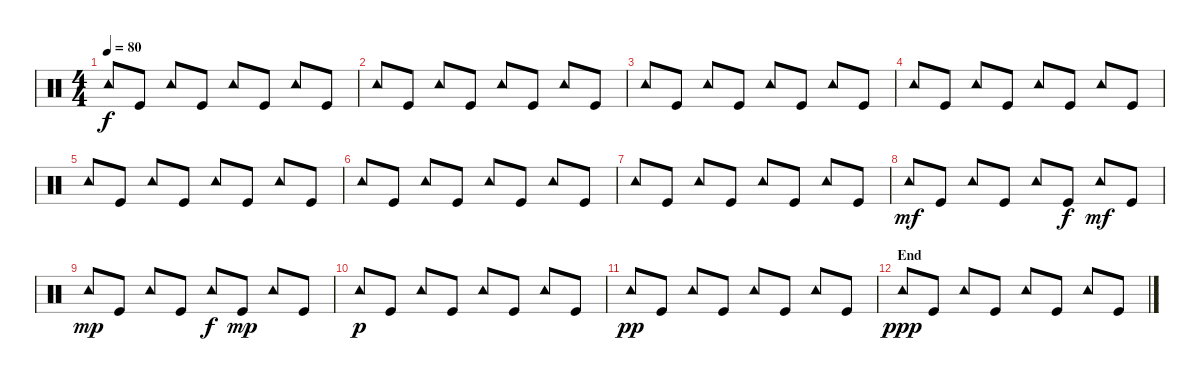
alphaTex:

\track "" {instrument percussion}
\staff {score}
\articulation defaults
\ts (4 4)
\tempo 80
\clef neutral
\ks c "Tambourine (hit)".8{dy f} "Kick (hit)".8 "Tambourine (hit)".8 "Kick (hit)".8 "Tambourine (hit)".8 "Kick (hit)".8 "Tambourine (hit)".8 "Kick (hit)".8
|
"Tambourine (hit)".8 "Kick (hit)".8 "Tambourine (hit)".8 "Kick (hit)".8 "Tambourine (hit)".8 "Kick (hit)".8 "Tambourine (hit)".8 "Kick (hit)".8 |
"Tambourine (hit)".8 "Kick (hit)".8 "Tambourine (hit)".8 "Kick (hit)".8 "Tambourine (hit)".8 "Kick (hit)".8 "Tambourine (hit)".8 "Kick (hit)".8 |
"Tambourine (hit)".8 "Kick (hit)".8 "Tambourine (hit)".8 "Kick (hit)".8 "Tambourine (hit)".8 "Kick (hit)".8 "Tambourine (hit)".8 "Kick (hit)".8 |
"Tambourine (hit)".8 "Kick (hit)".8 "Tambourine (hit)".8 "Kick (hit)".8 "Tambourine (hit)".8 "Kick (hit)".8 "Tambourine (hit)".8 "Kick (hit)".8 |
"Tambourine (hit)".8 "Kick (hit)".8 "Tambourine (hit)".8 "Kick (hit)".8 "Tambourine (hit)".8 "Kick (hit)".8 "Tambourine (hit)".8 "Kick (hit)".8 |
"Tambourine (hit)".8 "Kick (hit)".8 "Tambourine (hit)".8 "Kick (hit)".8 "Tambourine (hit)".8 "Kick (hit)".8 "Tambourine (hit)".8 "Kick (hit)".8 |
"Tambourine (hit)".8{dy mf} "Kick (hit)".8 "Tambourine (hit)".8 "Kick (hit)".8 "Tambourine (hit)".8 "Kick (hit)".8{dy f} "Tambourine (hit)".8{dy mf} "Kick (hit)".8 |
"Tambourine (hit)".8{dy mp} "Kick (hit)".8 "Tambourine (hit)".8 "Kick (hit)".8 "Tambourine (hit)".8{dy f} "Kick (hit)".8{dy mp} "Tambourine (hit)".8 "Kick (hit)".8 |
"Tambourine (hit)".8{dy p} "Kick (hit)".8 "Tambourine (hit)".8 "Kick (hit)".8 "Tambourine (hit)".8 "Kick (hit)".8 "Tambourine (hit)".8 "Kick (hit)".8 |
"Tambourine (hit)".8{dy pp} "Kick (hit)".8 "Tambourine (hit)".8 "Kick (hit)".8 "Tambourine (hit)".8 "Kick (hit)".8 "Tambourine (hit)".8 "Kick (hit)".8 |
\section ("" "End")
"Tambourine (hit)".8{dy ppp} "Kick (hit)".8 "Tambourine (hit)".8 "Kick (hit)".8 "Tambourine (hit)".8 "Kick (hit)".8 "Tambourine (hit)".8 "Kick (hit)".8
